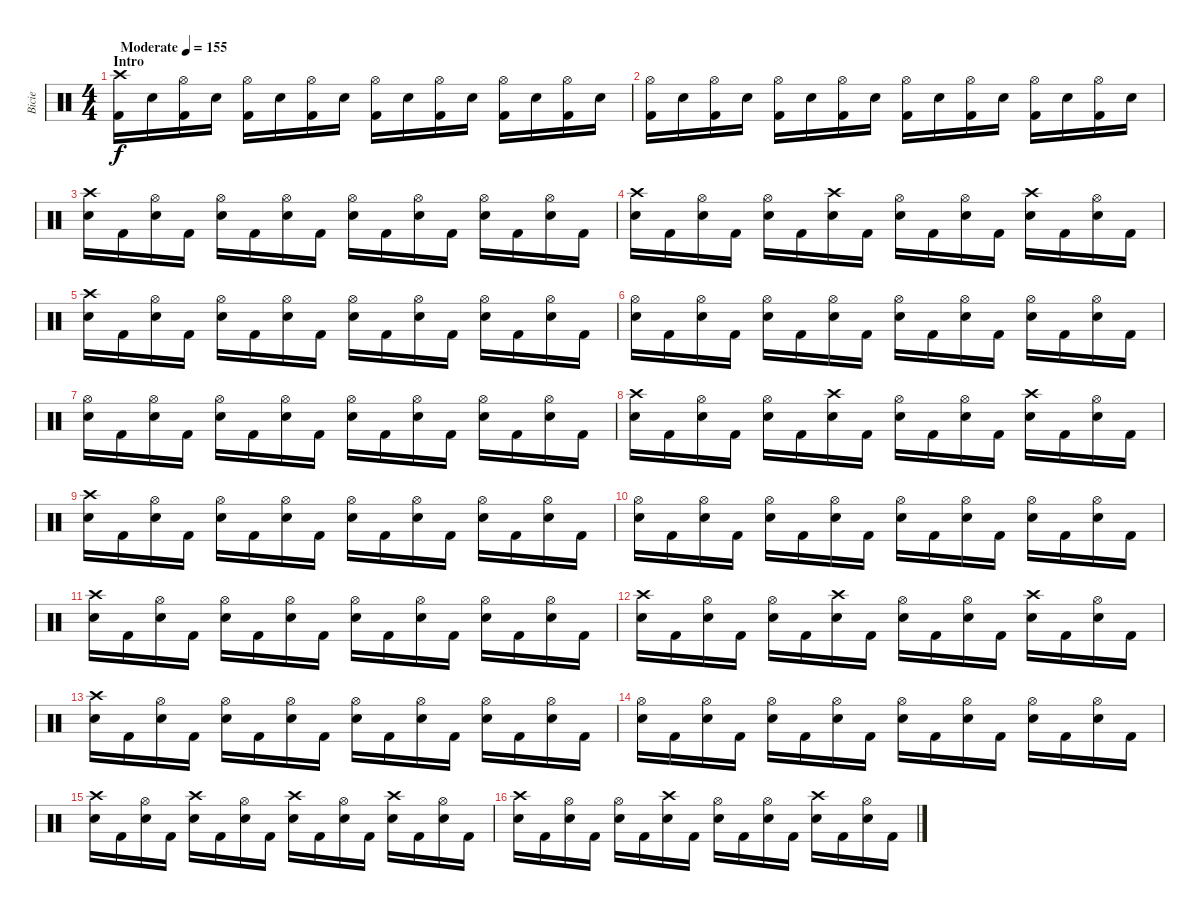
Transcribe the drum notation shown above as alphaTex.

\track ("Bicie" "Bicie") {instrument percussion}
\staff {score}
\articulation defaults
\ts (4 4)
\section ("" "Intro")
\tempo (155 "Moderate")
\clef neutral
\ks c
("Crash high (hit)" "Kick (hit) 2").16{dy f} "Snare (hit) 2".16 ("Hi-Hat (open)" "Kick (hit) 2").16 "Snare (hit) 2".16 ("Hi-Hat (open)" "Kick (hit) 2").16 "Snare (hit) 2".16 ("Hi-Hat (open)" "Kick (hit) 2").16 "Snare (hit) 2".16 ("Hi-Hat (open)" "Kick (hit) 2").16 "Snare (hit) 2".16 ("Hi-Hat (open)" "Kick (hit) 2").16 "Snare (hit) 2".16 ("Hi-Hat (open)" "Kick (hit) 2").16 "Snare (hit) 2".16 ("Hi-Hat (open)" "Kick (hit) 2").16 "Snare (hit) 2".16 |
("Hi-Hat (open)" "Kick (hit) 2").16 "Snare (hit) 2".16 ("Hi-Hat (open)" "Kick (hit) 2").16 "Snare (hit) 2".16 ("Hi-Hat (open)" "Kick (hit) 2").16 "Snare (hit) 2".16 ("Hi-Hat (open)" "Kick (hit) 2").16 "Snare (hit) 2".16 ("Hi-Hat (open)" "Kick (hit) 2").16 "Snare (hit) 2".16 ("Hi-Hat (open)" "Kick (hit) 2").16 "Snare (hit) 2".16 ("Hi-Hat (open)" "Kick (hit) 2").16 "Snare (hit) 2".16 ("Hi-Hat (open)" "Kick (hit) 2").16 "Snare (hit) 2".16 |
("Crash high (hit)" "Snare (hit) 2").16 "Kick (hit) 2".16 ("Hi-Hat (open)" "Snare (hit) 2").16 "Kick (hit) 2".16 ("Hi-Hat (open)" "Snare (hit) 2").16 "Kick (hit) 2".16 ("Hi-Hat (open)" "Snare (hit) 2").16 "Kick (hit) 2".16 ("Hi-Hat (open)" "Snare (hit) 2").16 "Kick (hit) 2".16 ("Hi-Hat (open)" "Snare (hit) 2").16 "Kick (hit) 2".16 ("Hi-Hat (open)" "Snare (hit) 2").16 "Kick (hit) 2".16 ("Hi-Hat (open)" "Snare (hit) 2").16 "Kick (hit) 2".16 |
("Crash high (hit)" "Snare (hit) 2").16 "Kick (hit) 2".16 ("Hi-Hat (open)" "Snare (hit) 2").16 "Kick (hit) 2".16 ("Hi-Hat (open)" "Snare (hit) 2").16 "Kick (hit) 2".16 ("Crash high (hit)" "Snare (hit) 2").16 "Kick (hit) 2".16 ("Hi-Hat (open)" "Snare (hit) 2").16 "Kick (hit) 2".16 ("Hi-Hat (open)" "Snare (hit) 2").16 "Kick (hit) 2".16 ("Crash high (hit)" "Snare (hit) 2").16 "Kick (hit) 2".16 ("Hi-Hat (open)" "Snare (hit) 2").16 "Kick (hit) 2".16 |
("Crash high (hit)" "Snare (hit) 2").16 "Kick (hit) 2".16 ("Hi-Hat (open)" "Snare (hit) 2").16 "Kick (hit) 2".16 ("Hi-Hat (open)" "Snare (hit) 2").16 "Kick (hit) 2".16 ("Hi-Hat (open)" "Snare (hit) 2").16 "Kick (hit) 2".16 ("Hi-Hat (open)" "Snare (hit) 2").16 "Kick (hit) 2".16 ("Hi-Hat (open)" "Snare (hit) 2").16 "Kick (hit) 2".16 ("Hi-Hat (open)" "Snare (hit) 2").16 "Kick (hit) 2".16 ("Hi-Hat (open)" "Snare (hit) 2").16 "Kick (hit) 2".16 |
("Hi-Hat (open)" "Snare (hit) 2").16 "Kick (hit) 2".16 ("Hi-Hat (open)" "Snare (hit) 2").16 "Kick (hit) 2".16 ("Hi-Hat (open)" "Snare (hit) 2").16 "Kick (hit) 2".16 ("Hi-Hat (open)" "Snare (hit) 2").16 "Kick (hit) 2".16 ("Hi-Hat (open)" "Snare (hit) 2").16 "Kick (hit) 2".16 ("Hi-Hat (open)" "Snare (hit) 2").16 "Kick (hit) 2".16 ("Hi-Hat (open)" "Snare (hit) 2").16 "Kick (hit) 2".16 ("Hi-Hat (open)" "Snare (hit) 2").16 "Kick (hit) 2".16 |
("Hi-Hat (open)" "Snare (hit) 2").16 "Kick (hit) 2".16 ("Hi-Hat (open)" "Snare (hit) 2").16 "Kick (hit) 2".16 ("Hi-Hat (open)" "Snare (hit) 2").16 "Kick (hit) 2".16 ("Hi-Hat (open)" "Snare (hit) 2").16 "Kick (hit) 2".16 ("Hi-Hat (open)" "Snare (hit) 2").16 "Kick (hit) 2".16 ("Hi-Hat (open)" "Snare (hit) 2").16 "Kick (hit) 2".16 ("Hi-Hat (open)" "Snare (hit) 2").16 "Kick (hit) 2".16 ("Hi-Hat (open)" "Snare (hit) 2").16 "Kick (hit) 2".16 |
("Crash high (hit)" "Snare (hit) 2").16 "Kick (hit) 2".16 ("Hi-Hat (open)" "Snare (hit) 2").16 "Kick (hit) 2".16 ("Hi-Hat (open)" "Snare (hit) 2").16 "Kick (hit) 2".16 ("Crash high (hit)" "Snare (hit) 2").16 "Kick (hit) 2".16 ("Hi-Hat (open)" "Snare (hit) 2").16 "Kick (hit) 2".16 ("Hi-Hat (open)" "Snare (hit) 2").16 "Kick (hit) 2".16 ("Crash high (hit)" "Snare (hit) 2").16 "Kick (hit) 2".16 ("Hi-Hat (open)" "Snare (hit) 2").16 "Kick (hit) 2".16 |
("Crash high (hit)" "Snare (hit) 2").16 "Kick (hit) 2".16 ("Hi-Hat (open)" "Snare (hit) 2").16 "Kick (hit) 2".16 ("Hi-Hat (open)" "Snare (hit) 2").16 "Kick (hit) 2".16 ("Hi-Hat (open)" "Snare (hit) 2").16 "Kick (hit) 2".16 ("Hi-Hat (open)" "Snare (hit) 2").16 "Kick (hit) 2".16 ("Hi-Hat (open)" "Snare (hit) 2").16 "Kick (hit) 2".16 ("Hi-Hat (open)" "Snare (hit) 2").16 "Kick (hit) 2".16 ("Hi-Hat (open)" "Snare (hit) 2").16 "Kick (hit) 2".16 |
("Hi-Hat (open)" "Snare (hit) 2").16 "Kick (hit) 2".16 ("Hi-Hat (open)" "Snare (hit) 2").16 "Kick (hit) 2".16 ("Hi-Hat (open)" "Snare (hit) 2").16 "Kick (hit) 2".16 ("Hi-Hat (open)" "Snare (hit) 2").16 "Kick (hit) 2".16 ("Hi-Hat (open)" "Snare (hit) 2").16 "Kick (hit) 2".16 ("Hi-Hat (open)" "Snare (hit) 2").16 "Kick (hit) 2".16 ("Hi-Hat (open)" "Snare (hit) 2").16 "Kick (hit) 2".16 ("Hi-Hat (open)" "Snare (hit) 2").16 "Kick (hit) 2".16 |
("Crash high (hit)" "Snare (hit) 2").16 "Kick (hit) 2".16 ("Hi-Hat (open)" "Snare (hit) 2").16 "Kick (hit) 2".16 ("Hi-Hat (open)" "Snare (hit) 2").16 "Kick (hit) 2".16 ("Hi-Hat (open)" "Snare (hit) 2").16 "Kick (hit) 2".16 ("Hi-Hat (open)" "Snare (hit) 2").16 "Kick (hit) 2".16 ("Hi-Hat (open)" "Snare (hit) 2").16 "Kick (hit) 2".16 ("Hi-Hat (open)" "Snare (hit) 2").16 "Kick (hit) 2".16 ("Hi-Hat (open)" "Snare (hit) 2").16 "Kick (hit) 2".16 |
("Crash high (hit)" "Snare (hit) 2").16 "Kick (hit) 2".16 ("Hi-Hat (open)" "Snare (hit) 2").16 "Kick (hit) 2".16 ("Hi-Hat (open)" "Snare (hit) 2").16 "Kick (hit) 2".16 ("Crash high (hit)" "Snare (hit) 2").16 "Kick (hit) 2".16 ("Hi-Hat (open)" "Snare (hit) 2").16 "Kick (hit) 2".16 ("Hi-Hat (open)" "Snare (hit) 2").16 "Kick (hit) 2".16 ("Crash high (hit)" "Snare (hit) 2").16 "Kick (hit) 2".16 ("Hi-Hat (open)" "Snare (hit) 2").16 "Kick (hit) 2".16 |
("Crash high (hit)" "Snare (hit) 2").16 "Kick (hit) 2".16 ("Hi-Hat (open)" "Snare (hit) 2").16 "Kick (hit) 2".16 ("Hi-Hat (open)" "Snare (hit) 2").16 "Kick (hit) 2".16 ("Hi-Hat (open)" "Snare (hit) 2").16 "Kick (hit) 2".16 ("Hi-Hat (open)" "Snare (hit) 2").16 "Kick (hit) 2".16 ("Hi-Hat (open)" "Snare (hit) 2").16 "Kick (hit) 2".16 ("Hi-Hat (open)" "Snare (hit) 2").16 "Kick (hit) 2".16 ("Hi-Hat (open)" "Snare (hit) 2").16 "Kick (hit) 2".16 |
("Hi-Hat (open)" "Snare (hit) 2").16 "Kick (hit) 2".16 ("Hi-Hat (open)" "Snare (hit) 2").16 "Kick (hit) 2".16 ("Hi-Hat (open)" "Snare (hit) 2").16 "Kick (hit) 2".16 ("Hi-Hat (open)" "Snare (hit) 2").16 "Kick (hit) 2".16 ("Hi-Hat (open)" "Snare (hit) 2").16 "Kick (hit) 2".16 ("Hi-Hat (open)" "Snare (hit) 2").16 "Kick (hit) 2".16 ("Hi-Hat (open)" "Snare (hit) 2").16 "Kick (hit) 2".16 ("Hi-Hat (open)" "Snare (hit) 2").16 "Kick (hit) 2".16 |
("Crash high (hit)" "Snare (hit) 2").16 "Kick (hit) 2".16 ("Hi-Hat (open)" "Snare (hit) 2").16 "Kick (hit) 2".16 ("Crash high (hit)" "Snare (hit) 2").16 "Kick (hit) 2".16 ("Hi-Hat (open)" "Snare (hit) 2").16 "Kick (hit) 2".16 ("Crash high (hit)" "Snare (hit) 2").16 "Kick (hit) 2".16 ("Hi-Hat (open)" "Snare (hit) 2").16 "Kick (hit) 2".16 ("Crash high (hit)" "Snare (hit) 2").16 "Kick (hit) 2".16 ("Hi-Hat (open)" "Snare (hit) 2").16 "Kick (hit) 2".16 |
("Crash high (hit)" "Snare (hit) 2").16 "Kick (hit) 2".16 ("Hi-Hat (open)" "Snare (hit) 2").16 "Kick (hit) 2".16 ("Hi-Hat (open)" "Snare (hit) 2").16 "Kick (hit) 2".16 ("Crash high (hit)" "Snare (hit) 2").16 "Kick (hit) 2".16 ("Hi-Hat (open)" "Snare (hit) 2").16 "Kick (hit) 2".16 ("Hi-Hat (open)" "Snare (hit) 2").16 "Kick (hit) 2".16 ("Crash high (hit)" "Snare (hit) 2").16 "Kick (hit) 2".16 ("Hi-Hat (open)" "Snare (hit) 2").16 "Kick (hit) 2".16
